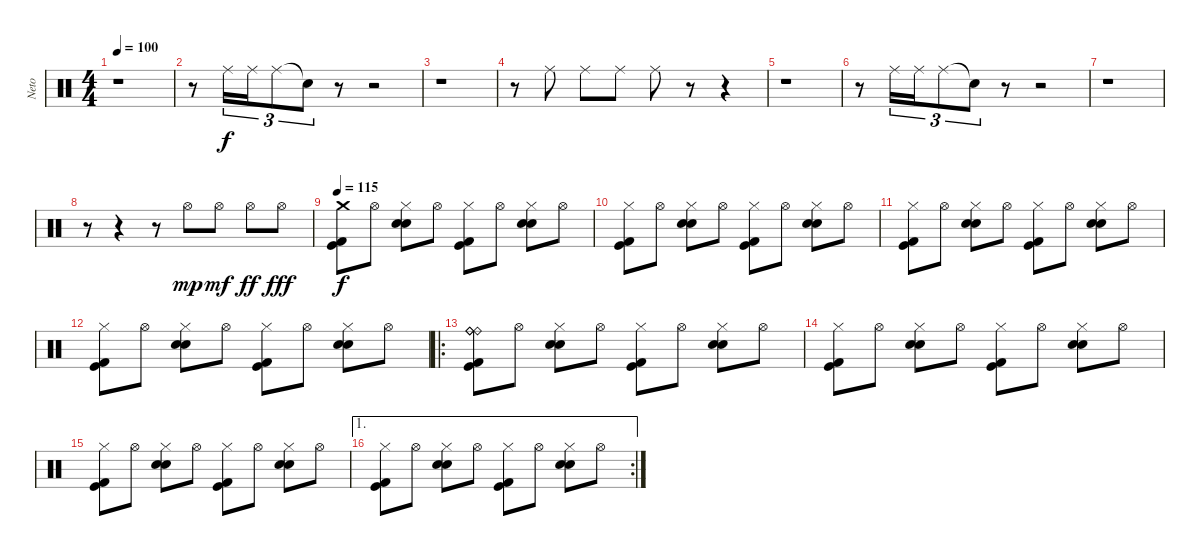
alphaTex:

\track ("Neto" "Neto") {instrument percussion}
\staff {score}
\articulation defaults
\ts (4 4)
\tempo 100
\clef neutral
\ks c
r.1{dy f} |
r.8 "Ride (middle)".16{tu (3 2)} "Ride (middle)".16{tu (3 2)} "Ride (middle)".8{tu (3 2)} "Snare (hit)"{t}.8{tu (3 2)} r.8 r.2 |
r.1 |
r.8 "Ride (middle)".8 "Ride (middle)".8 "Ride (middle)".8 "Ride (middle)".8 r.8 r.4 |
r.1 |
r.8 "Ride (middle)".16{tu (3 2)} "Ride (middle)".16{tu (3 2)} "Ride (middle)".8{tu (3 2)} "Snare (hit)"{t}.8{tu (3 2)} r.8 r.2 |
r.1 |
r.8 r.4 r.8 "Hi-Hat (open)".8{dy mp} "Hi-Hat (open)".8{dy mf} "Hi-Hat (open)".8{dy ff} "Hi-Hat (open)".8{dy fff} |
\tempo 115
("Crash medium (hit)" "Kick (hit)" "Kick (hit) 2").8{dy f} "Hi-Hat (open)".8 ("Hi-Hat (closed)" "Snare (hit) 2" "Snare (hit) 2").8 "Hi-Hat (open)".8 ("Hi-Hat (closed)" "Kick (hit)" "Kick (hit) 2").8 "Hi-Hat (open)".8 ("Hi-Hat (closed)" "Snare (hit) 2" "Snare (hit) 2").8 "Hi-Hat (open)".8 |
("Hi-Hat (closed)" "Kick (hit)" "Kick (hit) 2").8 "Hi-Hat (open)".8 ("Hi-Hat (closed)" "Snare (hit) 2" "Snare (hit) 2").8 "Hi-Hat (open)".8 ("Hi-Hat (closed)" "Kick (hit)" "Kick (hit) 2").8 "Hi-Hat (open)".8 ("Hi-Hat (closed)" "Snare (hit) 2" "Snare (hit) 2").8 "Hi-Hat (open)".8 |
("Hi-Hat (closed)" "Kick (hit)" "Kick (hit) 2").8 "Hi-Hat (open)".8 ("Hi-Hat (closed)" "Snare (hit) 2" "Snare (hit) 2").8 "Hi-Hat (open)".8 ("Hi-Hat (closed)" "Kick (hit)" "Kick (hit) 2").8 "Hi-Hat (open)".8 ("Hi-Hat (closed)" "Snare (hit) 2" "Snare (hit) 2").8 "Hi-Hat (open)".8 |
("Hi-Hat (closed)" "Kick (hit)" "Kick (hit) 2").8 "Hi-Hat (open)".8 ("Hi-Hat (closed)" "Snare (hit) 2" "Snare (hit) 2").8 "Hi-Hat (open)".8 ("Hi-Hat (closed)" "Kick (hit)" "Kick (hit) 2").8 "Hi-Hat (open)".8 ("Hi-Hat (closed)" "Snare (hit) 2" "Snare (hit) 2").8 "Hi-Hat (open)".8 |
\ro
("Ride (bell)" "Ride (bell)" "Ride (bell)" "Kick (hit)" "Kick (hit) 2").8 "Hi-Hat (open)".8 ("Hi-Hat (closed)" "Snare (hit) 2" "Snare (hit) 2").8 "Hi-Hat (open)".8 ("Hi-Hat (closed)" "Kick (hit)" "Kick (hit) 2").8 "Hi-Hat (open)".8 ("Hi-Hat (closed)" "Snare (hit) 2" "Snare (hit) 2").8 "Hi-Hat (open)".8 |
("Hi-Hat (closed)" "Kick (hit)" "Kick (hit) 2").8 "Hi-Hat (open)".8 ("Hi-Hat (closed)" "Snare (hit) 2" "Snare (hit) 2").8 "Hi-Hat (open)".8 ("Hi-Hat (closed)" "Kick (hit)" "Kick (hit) 2").8 "Hi-Hat (open)".8 ("Hi-Hat (closed)" "Snare (hit) 2" "Snare (hit) 2").8 "Hi-Hat (open)".8 |
("Hi-Hat (closed)" "Kick (hit)" "Kick (hit) 2").8 "Hi-Hat (open)".8 ("Hi-Hat (closed)" "Snare (hit) 2" "Snare (hit) 2").8 "Hi-Hat (open)".8 ("Hi-Hat (closed)" "Kick (hit)" "Kick (hit) 2").8 "Hi-Hat (open)".8 ("Hi-Hat (closed)" "Snare (hit) 2" "Snare (hit) 2").8 "Hi-Hat (open)".8 |
\ae 1
\rc 2
("Hi-Hat (closed)" "Kick (hit)" "Kick (hit) 2").8 "Hi-Hat (open)".8 ("Hi-Hat (closed)" "Snare (hit) 2" "Snare (hit) 2").8 "Hi-Hat (open)".8 ("Hi-Hat (closed)" "Kick (hit)" "Kick (hit) 2").8 "Hi-Hat (open)".8 ("Hi-Hat (closed)" "Snare (hit) 2" "Snare (hit) 2").8 "Hi-Hat (open)".8
